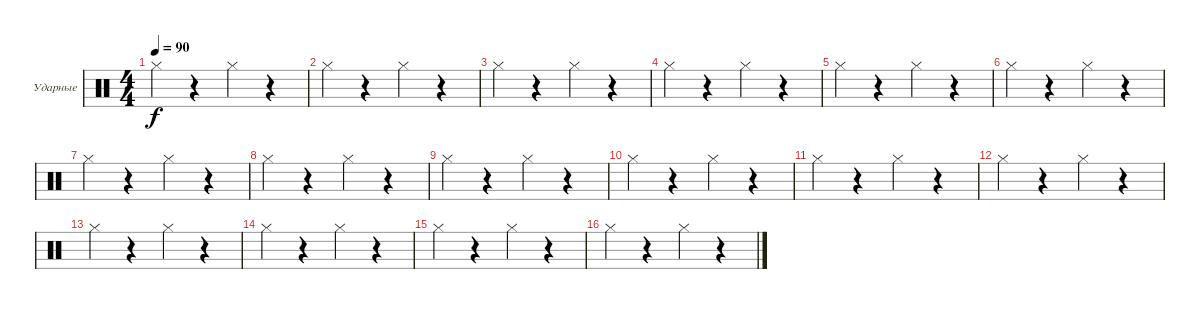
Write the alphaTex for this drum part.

\defaultSystemsLayout 4
\bracketExtendMode groupsimilarinstruments
\firstSystemTrackNameOrientation horizontal
\otherSystemsTrackNameOrientation horizontal
\track ("Drums" "Ударные") {instrument percussion}
\staff {score}
\articulation defaults
\ts (4 4)
\tempo 90
\clef neutral
\ks c "Hi-Hat (closed)".4{dy f}
r.4 "Hi-Hat (closed)".4 r.4 |
"Hi-Hat (closed)".4 r.4 "Hi-Hat (closed)".4 r.4 |
"Hi-Hat (closed)".4 r.4 "Hi-Hat (closed)".4 r.4 |
"Hi-Hat (closed)".4 r.4 "Hi-Hat (closed)".4 r.4 |
"Hi-Hat (closed)".4 r.4 "Hi-Hat (closed)".4 r.4 |
"Hi-Hat (closed)".4 r.4 "Hi-Hat (closed)".4 r.4 |
"Hi-Hat (closed)".4 r.4 "Hi-Hat (closed)".4 r.4 |
"Hi-Hat (closed)".4 r.4 "Hi-Hat (closed)".4 r.4 |
"Hi-Hat (closed)".4 r.4 "Hi-Hat (closed)".4 r.4 |
"Hi-Hat (closed)".4 r.4 "Hi-Hat (closed)".4 r.4 |
"Hi-Hat (closed)".4 r.4 "Hi-Hat (closed)".4 r.4 |
"Hi-Hat (closed)".4 r.4 "Hi-Hat (closed)".4 r.4 |
"Hi-Hat (closed)".4 r.4 "Hi-Hat (closed)".4 r.4 |
"Hi-Hat (closed)".4 r.4 "Hi-Hat (closed)".4 r.4 |
"Hi-Hat (closed)".4 r.4 "Hi-Hat (closed)".4 r.4 |
"Hi-Hat (closed)".4 r.4 "Hi-Hat (closed)".4 r.4
